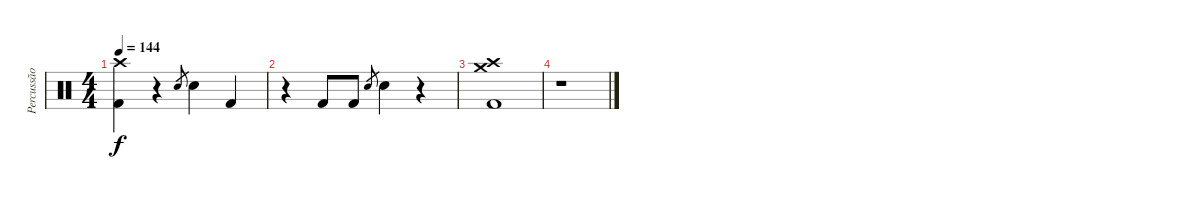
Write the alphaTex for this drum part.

\track ("Percussão" "Percussão") {instrument percussion}
\staff {score}
\articulation defaults
\ts (4 4)
\tempo 144
\clef neutral
\ks c
("Crash high (hit)" "Kick (hit) 2").4{dy f} r.4 "Electric Snare (hit)".8{gr} "Electric Snare (hit)".4 "Kick (hit) 2".4 |
r.4 "Kick (hit) 2".8 "Kick (hit) 2".8 "Electric Snare (hit)".8{gr} "Electric Snare (hit)".4 r.4 |
("Crash medium (hit)" "Crash high (hit)" "Kick (hit) 2").1 |
r.1
